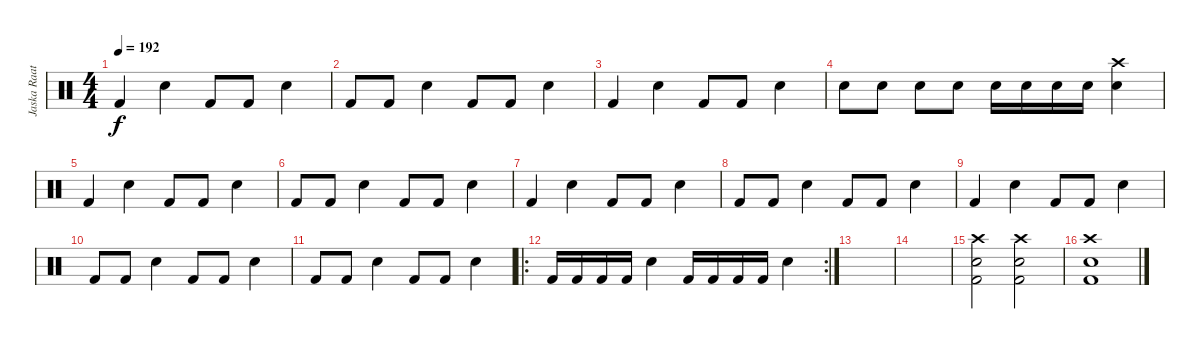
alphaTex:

\track ("Jaska Raatikainen " "Jaska Raat") {instrument percussion}
\staff {score}
\articulation defaults
\ts (4 4)
\tempo 192
\clef neutral
\ks c "Kick (hit) 2".4{dy f} "Snare (hit) 2".4 "Kick (hit) 2".8 "Kick (hit) 2".8 "Snare (hit) 2".4
|
"Kick (hit) 2".8 "Kick (hit) 2".8 "Snare (hit) 2".4 "Kick (hit) 2".8 "Kick (hit) 2".8 "Snare (hit) 2".4 |
"Kick (hit) 2".4 "Snare (hit) 2".4 "Kick (hit) 2".8 "Kick (hit) 2".8 "Snare (hit) 2".4 |
"Snare (hit) 2".8 "Snare (hit) 2".8 "Snare (hit) 2".8 "Snare (hit) 2".8 "Snare (hit) 2".16 "Snare (hit) 2".16 "Snare (hit) 2".16 "Snare (hit) 2".16 ("Crash high (hit)" "Snare (hit) 2").4 |
"Kick (hit) 2".4 "Snare (hit) 2".4 "Kick (hit) 2".8 "Kick (hit) 2".8 "Snare (hit) 2".4 |
"Kick (hit) 2".8 "Kick (hit) 2".8 "Snare (hit) 2".4 "Kick (hit) 2".8 "Kick (hit) 2".8 "Snare (hit) 2".4 |
"Kick (hit) 2".4 "Snare (hit) 2".4 "Kick (hit) 2".8 "Kick (hit) 2".8 "Snare (hit) 2".4 |
"Kick (hit) 2".8 "Kick (hit) 2".8 "Snare (hit) 2".4 "Kick (hit) 2".8 "Kick (hit) 2".8 "Snare (hit) 2".4 |
"Kick (hit) 2".4 "Snare (hit) 2".4 "Kick (hit) 2".8 "Kick (hit) 2".8 "Snare (hit) 2".4 |
"Kick (hit) 2".8 "Kick (hit) 2".8 "Snare (hit) 2".4 "Kick (hit) 2".8 "Kick (hit) 2".8 "Snare (hit) 2".4 |
"Kick (hit) 2".8 "Kick (hit) 2".8 "Snare (hit) 2".4 "Kick (hit) 2".8 "Kick (hit) 2".8 "Snare (hit) 2".4 |
\ro
\rc 2 "Kick (hit) 2".16 "Kick (hit) 2".16 "Kick (hit) 2".16 "Kick (hit) 2".16 "Snare (hit) 2".4 "Kick (hit) 2".16 "Kick (hit) 2".16 "Kick (hit) 2".16 "Kick (hit) 2".16 "Snare (hit) 2".4
|
|
|
("Crash high (hit)" "Snare (hit) 2" "Kick (hit) 2").2 ("Crash high (hit)" "Snare (hit) 2" "Kick (hit) 2").2 |
("Crash high (hit)" "Snare (hit) 2" "Kick (hit) 2").1
